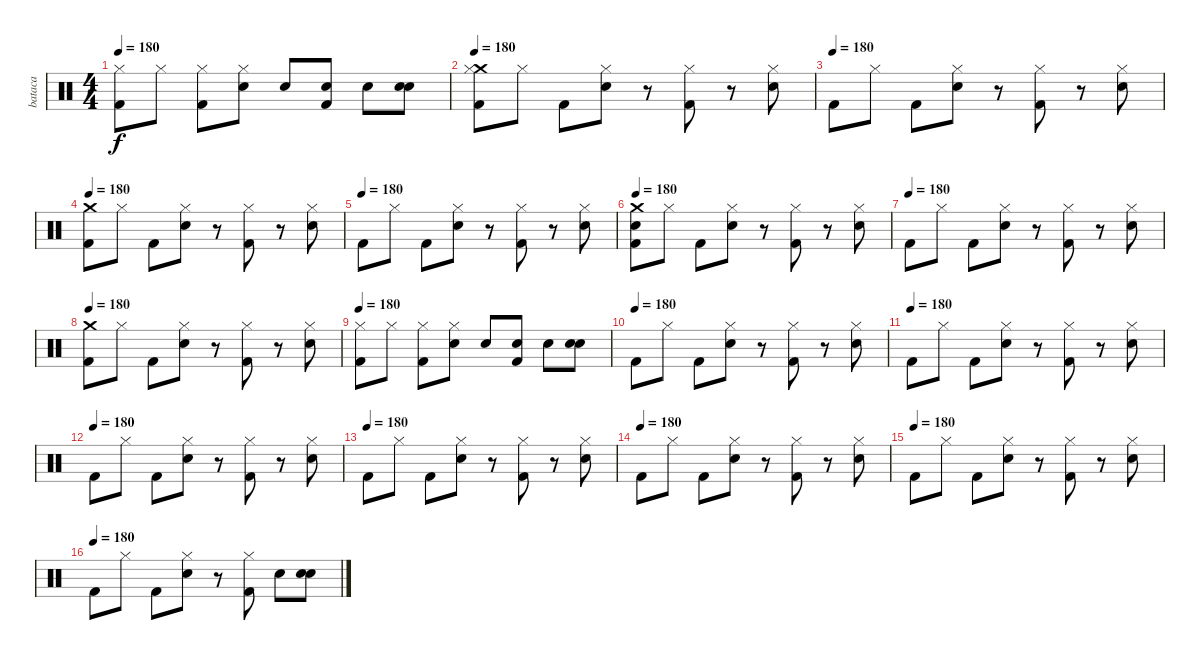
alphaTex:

\track ("bataca" "bataca") {instrument percussion}
\staff {score}
\articulation defaults
\ts (4 4)
\tempo 180
\clef neutral
\ks c
("Hi-Hat (closed)" "Kick (hit) 2").8{dy f} "Hi-Hat (closed)".8 ("Hi-Hat (closed)" "Kick (hit) 2").8 ("Hi-Hat (closed)" "Snare (hit) 2").8 "Snare (hit) 2".8 ("Snare (hit) 2" "Kick (hit) 2").8 "Snare (hit) 2".8 ("Snare (hit) 2" "Snare (hit) 2").8 |
\tempo 180
("Crash medium (hit)" "Hi-Hat (closed)" "Kick (hit) 2").8 "Hi-Hat (closed)".8 "Kick (hit) 2".8 ("Hi-Hat (closed)" "Snare (hit) 2").8 r.8 ("Hi-Hat (closed)" "Kick (hit) 2").8 r.8 ("Hi-Hat (closed)" "Snare (hit) 2").8 |
\tempo (180)
"Kick (hit) 2".8 "Hi-Hat (closed)".8 "Kick (hit) 2".8 ("Hi-Hat (closed)" "Snare (hit) 2").8 r.8 ("Hi-Hat (closed)" "Kick (hit) 2").8 r.8 ("Hi-Hat (closed)" "Snare (hit) 2").8 |
\tempo 180
("Crash medium (hit)" "Kick (hit) 2").8 "Hi-Hat (closed)".8 "Kick (hit) 2".8 ("Hi-Hat (closed)" "Snare (hit) 2").8 r.8 ("Hi-Hat (closed)" "Kick (hit) 2").8 r.8 ("Hi-Hat (closed)" "Snare (hit) 2").8 |
\tempo (180)
"Kick (hit) 2".8 "Hi-Hat (closed)".8 "Kick (hit) 2".8 ("Hi-Hat (closed)" "Snare (hit) 2").8 r.8 ("Hi-Hat (closed)" "Kick (hit) 2").8 r.8 ("Hi-Hat (closed)" "Snare (hit) 2").8 |
\tempo 180
("Crash medium (hit)" "Snare (hit) 2" "Kick (hit) 2").8 "Hi-Hat (closed)".8 "Kick (hit) 2".8 ("Hi-Hat (closed)" "Snare (hit) 2").8 r.8 ("Hi-Hat (closed)" "Kick (hit) 2").8 r.8 ("Hi-Hat (closed)" "Snare (hit) 2").8 |
\tempo (180)
"Kick (hit) 2".8 "Hi-Hat (closed)".8 "Kick (hit) 2".8 ("Hi-Hat (closed)" "Snare (hit) 2").8 r.8 ("Hi-Hat (closed)" "Kick (hit) 2").8 r.8 ("Hi-Hat (closed)" "Snare (hit) 2").8 |
\tempo 180
("Crash medium (hit)" "Kick (hit) 2").8 "Hi-Hat (closed)".8 "Kick (hit) 2".8 ("Hi-Hat (closed)" "Snare (hit) 2").8 r.8 ("Hi-Hat (closed)" "Kick (hit) 2").8 r.8 ("Hi-Hat (closed)" "Snare (hit) 2").8 |
\tempo 180
("Hi-Hat (closed)" "Kick (hit) 2").8 "Hi-Hat (closed)".8 ("Hi-Hat (closed)" "Kick (hit) 2").8 ("Hi-Hat (closed)" "Snare (hit) 2").8 "Snare (hit) 2".8 ("Snare (hit) 2" "Kick (hit) 2").8 "Snare (hit) 2".8 ("Snare (hit) 2" "Snare (hit) 2").8 |
\tempo (180)
"Kick (hit) 2".8 "Hi-Hat (closed)".8 "Kick (hit) 2".8 ("Hi-Hat (closed)" "Snare (hit) 2").8 r.8 ("Hi-Hat (closed)" "Kick (hit) 2").8 r.8 ("Hi-Hat (closed)" "Snare (hit) 2").8 |
\tempo (180)
"Kick (hit) 2".8 "Hi-Hat (closed)".8 "Kick (hit) 2".8 ("Hi-Hat (closed)" "Snare (hit) 2").8 r.8 ("Hi-Hat (closed)" "Kick (hit) 2").8 r.8 ("Hi-Hat (closed)" "Snare (hit) 2").8 |
\tempo (180)
"Kick (hit) 2".8 "Hi-Hat (closed)".8 "Kick (hit) 2".8 ("Hi-Hat (closed)" "Snare (hit) 2").8 r.8 ("Hi-Hat (closed)" "Kick (hit) 2").8 r.8 ("Hi-Hat (closed)" "Snare (hit) 2").8 |
\tempo (180)
"Kick (hit) 2".8 "Hi-Hat (closed)".8 "Kick (hit) 2".8 ("Hi-Hat (closed)" "Snare (hit) 2").8 r.8 ("Hi-Hat (closed)" "Kick (hit) 2").8 r.8 ("Hi-Hat (closed)" "Snare (hit) 2").8 |
\tempo (180)
"Kick (hit) 2".8 "Hi-Hat (closed)".8 "Kick (hit) 2".8 ("Hi-Hat (closed)" "Snare (hit) 2").8 r.8 ("Hi-Hat (closed)" "Kick (hit) 2").8 r.8 ("Hi-Hat (closed)" "Snare (hit) 2").8 |
\tempo (180)
"Kick (hit) 2".8 "Hi-Hat (closed)".8 "Kick (hit) 2".8 ("Hi-Hat (closed)" "Snare (hit) 2").8 r.8 ("Hi-Hat (closed)" "Kick (hit) 2").8 r.8 ("Hi-Hat (closed)" "Snare (hit) 2").8 |
\tempo (180)
"Kick (hit) 2".8 "Hi-Hat (closed)".8 "Kick (hit) 2".8 ("Hi-Hat (closed)" "Snare (hit) 2").8 r.8 ("Hi-Hat (closed)" "Kick (hit) 2").8 "Snare (hit) 2".8 ("Snare (hit) 2" "Snare (hit) 2").8
